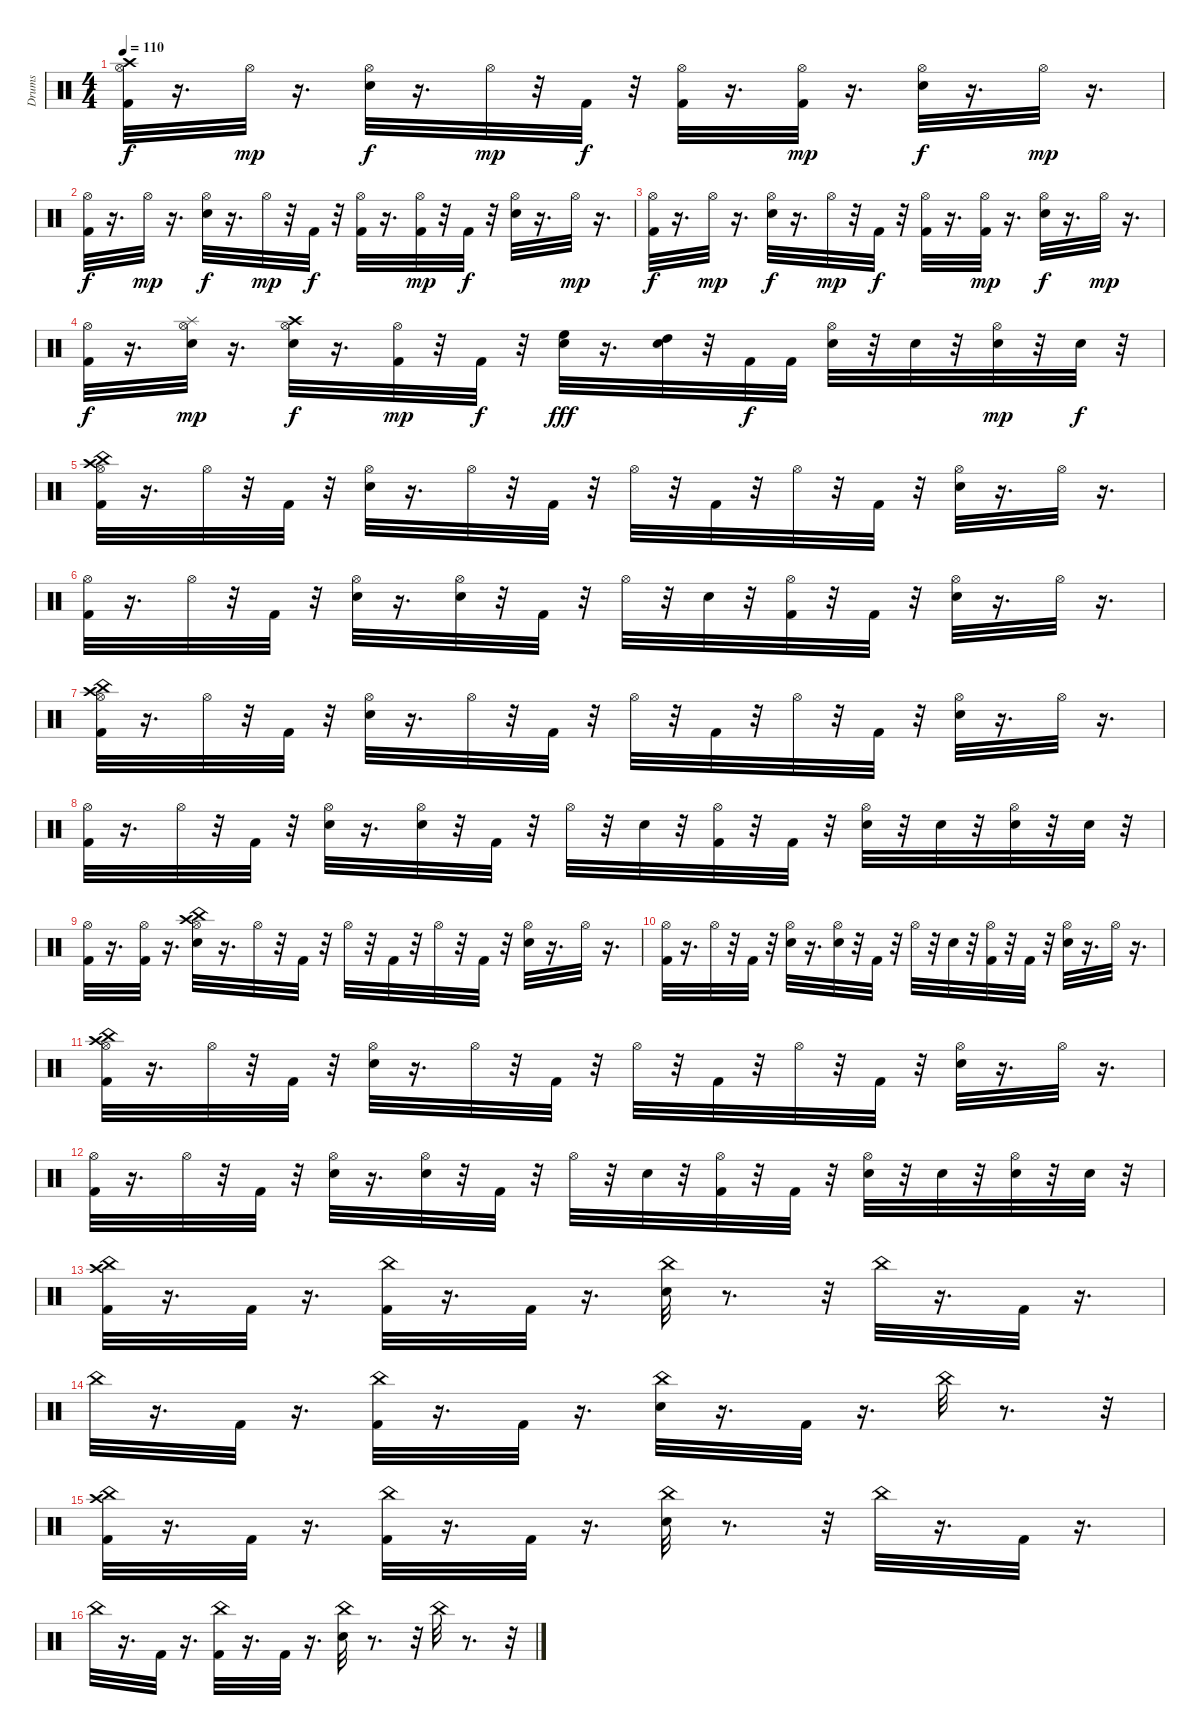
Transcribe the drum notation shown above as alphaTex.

\track ("Drums" "Drums") {instrument percussion}
\staff {score}
\articulation defaults
\ts (4 4)
\tempo 110
\clef neutral
\ks c
("Kick (hit) 2" "Hi-Hat (open)" "Crash high (hit)").32{dy f} r.16{d} "Hi-Hat (open)".32{dy mp} r.16{d} ("Snare (hit) 2" "Hi-Hat (open)").32{dy f} r.16{d} "Hi-Hat (open)".32{dy mp} r.32 "Kick (hit) 2".32{dy f} r.32 ("Kick (hit) 2" "Hi-Hat (open)").32 r.16{d} ("Kick (hit) 2" "Hi-Hat (open)").32{dy mp} r.16{d} ("Snare (hit) 2" "Hi-Hat (open)").32{dy f} r.16{d} "Hi-Hat (open)".32{dy mp} r.16{d} |
("Kick (hit) 2" "Hi-Hat (open)").32{dy f} r.16{d} "Hi-Hat (open)".32{dy mp} r.16{d} ("Snare (hit) 2" "Hi-Hat (open)").32{dy f} r.16{d} "Hi-Hat (open)".32{dy mp} r.32 "Kick (hit) 2".32{dy f} r.32 ("Kick (hit) 2" "Hi-Hat (open)").32 r.16{d} ("Kick (hit) 2" "Hi-Hat (open)").32{dy mp} r.32 "Kick (hit) 2".32{dy f} r.32 ("Snare (hit) 2" "Hi-Hat (open)").32 r.16{d} "Hi-Hat (open)".32{dy mp} r.16{d} |
("Kick (hit) 2" "Hi-Hat (open)").32{dy f} r.16{d} "Hi-Hat (open)".32{dy mp} r.16{d} ("Snare (hit) 2" "Hi-Hat (open)").32{dy f} r.16{d} "Hi-Hat (open)".32{dy mp} r.32 "Kick (hit) 2".32{dy f} r.32 ("Kick (hit) 2" "Hi-Hat (open)").32 r.16{d} ("Kick (hit) 2" "Hi-Hat (open)").32{dy mp} r.16{d} ("Snare (hit) 2" "Hi-Hat (open)").32{dy f} r.16{d} "Hi-Hat (open)".32{dy mp} r.16{d} |
("Kick (hit) 2" "Hi-Hat (open)").32{dy f} r.16{d} ("Snare (hit) 2" "Hi-Hat (open)" "Splash (hit)").32{dy mp} r.16{d} ("Snare (hit) 2" "Hi-Hat (open)" "Crash high (hit)").32{dy f} r.16{d} ("Kick (hit) 2" "Hi-Hat (open)").32{dy mp} r.32 "Kick (hit) 2".32{dy f} r.32 ("Snare (hit) 2" "High Floor Tom (hit)").32{dy fff} r.16{d} ("Snare (hit) 2" "High Tom (hit)").32 r.32 "Kick (hit) 2".32{dy f} "Kick (hit) 2".32 ("Snare (hit) 2" "Hi-Hat (open)").32 r.32 "Snare (hit) 2".32 r.32 ("Snare (hit) 2" "Hi-Hat (open)").32{dy mp} r.32 "Snare (hit) 2".32{dy f} r.32 |
("Kick (hit) 2" "Hi-Hat (open)" "Crash high (hit)" "China (hit)").32 r.16{d} "Hi-Hat (open)".32 r.32 "Kick (hit) 2".32 r.32 ("Snare (hit) 2" "Hi-Hat (open)").32 r.16{d} "Hi-Hat (open)".32 r.32 "Kick (hit) 2".32 r.32 "Hi-Hat (open)".32 r.32 "Kick (hit) 2".32 r.32 "Hi-Hat (open)".32 r.32 "Kick (hit) 2".32 r.32 ("Snare (hit) 2" "Hi-Hat (open)").32 r.16{d} "Hi-Hat (open)".32 r.16{d} |
("Kick (hit) 2" "Hi-Hat (open)").32 r.16{d} "Hi-Hat (open)".32 r.32 "Kick (hit) 2".32 r.32 ("Snare (hit) 2" "Hi-Hat (open)").32 r.16{d} ("Snare (hit) 2" "Hi-Hat (open)").32 r.32 "Kick (hit) 2".32 r.32 "Hi-Hat (open)".32 r.32 "Snare (hit) 2".32 r.32 ("Kick (hit) 2" "Hi-Hat (open)").32 r.32 "Kick (hit) 2".32 r.32 ("Snare (hit) 2" "Hi-Hat (open)").32 r.16{d} "Hi-Hat (open)".32 r.16{d} |
("Kick (hit) 2" "Hi-Hat (open)" "Crash high (hit)" "China (hit)").32 r.16{d} "Hi-Hat (open)".32 r.32 "Kick (hit) 2".32 r.32 ("Snare (hit) 2" "Hi-Hat (open)").32 r.16{d} "Hi-Hat (open)".32 r.32 "Kick (hit) 2".32 r.32 "Hi-Hat (open)".32 r.32 "Kick (hit) 2".32 r.32 "Hi-Hat (open)".32 r.32 "Kick (hit) 2".32 r.32 ("Snare (hit) 2" "Hi-Hat (open)").32 r.16{d} "Hi-Hat (open)".32 r.16{d} |
("Kick (hit) 2" "Hi-Hat (open)").32 r.16{d} "Hi-Hat (open)".32 r.32 "Kick (hit) 2".32 r.32 ("Snare (hit) 2" "Hi-Hat (open)").32 r.16{d} ("Snare (hit) 2" "Hi-Hat (open)").32 r.32 "Kick (hit) 2".32 r.32 "Hi-Hat (open)".32 r.32 "Snare (hit) 2".32 r.32 ("Kick (hit) 2" "Hi-Hat (open)").32 r.32 "Kick (hit) 2".32 r.32 ("Snare (hit) 2" "Hi-Hat (open)").32 r.32 "Snare (hit) 2".32 r.32 ("Snare (hit) 2" "Hi-Hat (open)").32 r.32 "Snare (hit) 2".32 r.32 |
("Kick (hit) 2" "Hi-Hat (open)").32 r.16{d} ("Kick (hit) 2" "Hi-Hat (open)").32 r.16{d} ("Snare (hit) 2" "Hi-Hat (open)" "Crash high (hit)" "China (hit)").32 r.16{d} "Hi-Hat (open)".32 r.32 "Kick (hit) 2".32 r.32 "Hi-Hat (open)".32 r.32 "Kick (hit) 2".32 r.32 "Hi-Hat (open)".32 r.32 "Kick (hit) 2".32 r.32 ("Snare (hit) 2" "Hi-Hat (open)").32 r.16{d} "Hi-Hat (open)".32 r.16{d} |
("Kick (hit) 2" "Hi-Hat (open)").32 r.16{d} "Hi-Hat (open)".32 r.32 "Kick (hit) 2".32 r.32 ("Snare (hit) 2" "Hi-Hat (open)").32 r.16{d} ("Snare (hit) 2" "Hi-Hat (open)").32 r.32 "Kick (hit) 2".32 r.32 "Hi-Hat (open)".32 r.32 "Snare (hit) 2".32 r.32 ("Kick (hit) 2" "Hi-Hat (open)").32 r.32 "Kick (hit) 2".32 r.32 ("Snare (hit) 2" "Hi-Hat (open)").32 r.16{d} "Hi-Hat (open)".32 r.16{d} |
("Kick (hit) 2" "Hi-Hat (open)" "Crash high (hit)" "China (hit)").32 r.16{d} "Hi-Hat (open)".32 r.32 "Kick (hit) 2".32 r.32 ("Snare (hit) 2" "Hi-Hat (open)").32 r.16{d} "Hi-Hat (open)".32 r.32 "Kick (hit) 2".32 r.32 "Hi-Hat (open)".32 r.32 "Kick (hit) 2".32 r.32 "Hi-Hat (open)".32 r.32 "Kick (hit) 2".32 r.32 ("Snare (hit) 2" "Hi-Hat (open)").32 r.16{d} "Hi-Hat (open)".32 r.16{d} |
("Kick (hit) 2" "Hi-Hat (open)").32 r.16{d} "Hi-Hat (open)".32 r.32 "Kick (hit) 2".32 r.32 ("Snare (hit) 2" "Hi-Hat (open)").32 r.16{d} ("Snare (hit) 2" "Hi-Hat (open)").32 r.32 "Kick (hit) 2".32 r.32 "Hi-Hat (open)".32 r.32 "Snare (hit) 2".32 r.32 ("Kick (hit) 2" "Hi-Hat (open)").32 r.32 "Kick (hit) 2".32 r.32 ("Snare (hit) 2" "Hi-Hat (open)").32 r.32 "Snare (hit) 2".32 r.32 ("Snare (hit) 2" "Hi-Hat (open)").32 r.32 "Snare (hit) 2".32 r.32 |
("Kick (hit) 2" "Crash high (hit)" "China (hit)").32 r.16{d} "Kick (hit) 2".32 r.16{d} ("Kick (hit) 2" "China (hit)").32 r.16{d} "Kick (hit) 2".32 r.16{d} ("Snare (hit) 2" "China (hit)").32 r.8{d} r.32 "China (hit)".32 r.16{d} "Kick (hit) 2".32 r.16{d} |
"China (hit)".32 r.16{d} "Kick (hit) 2".32 r.16{d} ("Kick (hit) 2" "China (hit)").32 r.16{d} "Kick (hit) 2".32 r.16{d} ("Snare (hit) 2" "China (hit)").32 r.16{d} "Kick (hit) 2".32 r.16{d} "China (hit)".32 r.8{d} r.32 |
("Kick (hit) 2" "Crash high (hit)" "China (hit)").32 r.16{d} "Kick (hit) 2".32 r.16{d} ("Kick (hit) 2" "China (hit)").32 r.16{d} "Kick (hit) 2".32 r.16{d} ("Snare (hit) 2" "China (hit)").32 r.8{d} r.32 "China (hit)".32 r.16{d} "Kick (hit) 2".32 r.16{d} |
"China (hit)".32 r.16{d} "Kick (hit) 2".32 r.16{d} ("Kick (hit) 2" "China (hit)").32 r.16{d} "Kick (hit) 2".32 r.16{d} ("Snare (hit) 2" "China (hit)").32 r.8{d} r.32 "China (hit)".32 r.8{d} r.32
